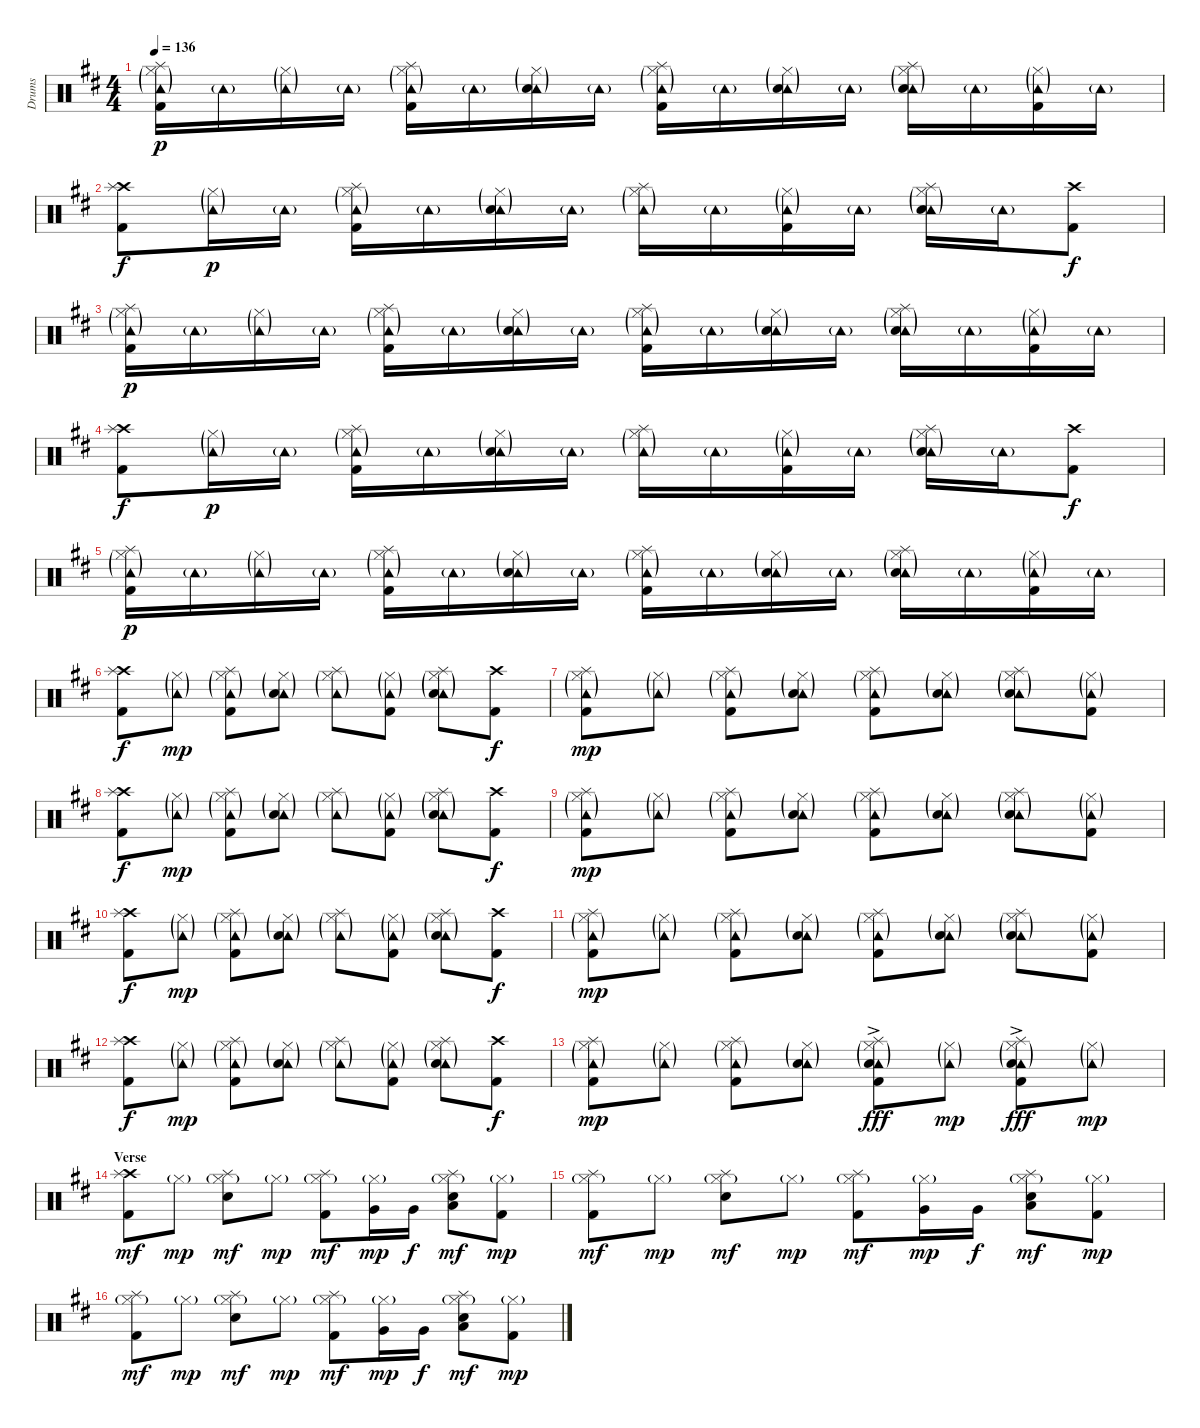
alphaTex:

\track ("Drums" "Drums") {instrument percussion}
\staff {score}
\articulation defaults
\ts (4 4)
\tempo 136
\clef neutral
\ks d
("Hi-Hat (closed)"{g} "Splash (hit)" "Tambourine (hit)"{g} "Kick (hit) 2").16{dy p} "Tambourine (hit)"{g}.16 ("Hi-Hat (closed)"{g} "Tambourine (hit)"{g}).16 "Tambourine (hit)"{g}.16 ("Hi-Hat (closed)"{g} "Splash (hit)" "Tambourine (hit)"{g} "Kick (hit) 2").16 "Tambourine (hit)"{g}.16 ("Hi-Hat (closed)"{g} "Tambourine (hit)"{g} "Snare (hit) 2").16 "Tambourine (hit)"{g}.16 ("Hi-Hat (closed)"{g} "Splash (hit)" "Tambourine (hit)"{g} "Kick (hit) 2").16 "Tambourine (hit)"{g}.16 ("Hi-Hat (closed)"{g} "Tambourine (hit)"{g} "Snare (hit) 2").16 "Tambourine (hit)"{g}.16 ("Hi-Hat (closed)"{g} "Splash (hit)" "Tambourine (hit)"{g} "Snare (hit) 2").16 "Tambourine (hit)"{g}.16 ("Hi-Hat (closed)"{g} "Tambourine (hit)"{g} "Kick (hit) 2").16 "Tambourine (hit)"{g}.16 |
("Crash high (hit)" "Splash (hit)" "Kick (hit) 2").8{dy f} ("Hi-Hat (closed)"{g} "Tambourine (hit)"{g}).16{dy p} "Tambourine (hit)"{g}.16 ("Hi-Hat (closed)"{g} "Splash (hit)" "Tambourine (hit)"{g} "Kick (hit) 2").16 "Tambourine (hit)"{g}.16 ("Hi-Hat (closed)"{g} "Tambourine (hit)"{g} "Snare (hit) 2").16 "Tambourine (hit)"{g}.16 ("Hi-Hat (closed)"{g} "Splash (hit)" "Tambourine (hit)"{g}).16 "Tambourine (hit)"{g}.16 ("Hi-Hat (closed)"{g} "Tambourine (hit)"{g} "Kick (hit) 2").16 "Tambourine (hit)"{g}.16 ("Hi-Hat (closed)"{g} "Splash (hit)" "Tambourine (hit)"{g} "Snare (hit) 2").16 "Tambourine (hit)"{g}.16 ("Crash high (hit)" "Kick (hit) 2").8{dy f} |
("Hi-Hat (closed)"{g} "Splash (hit)" "Tambourine (hit)"{g} "Kick (hit) 2").16{dy p} "Tambourine (hit)"{g}.16 ("Hi-Hat (closed)"{g} "Tambourine (hit)"{g}).16 "Tambourine (hit)"{g}.16 ("Hi-Hat (closed)"{g} "Splash (hit)" "Tambourine (hit)"{g} "Kick (hit) 2").16 "Tambourine (hit)"{g}.16 ("Hi-Hat (closed)"{g} "Tambourine (hit)"{g} "Snare (hit) 2").16 "Tambourine (hit)"{g}.16 ("Hi-Hat (closed)"{g} "Splash (hit)" "Tambourine (hit)"{g} "Kick (hit) 2").16 "Tambourine (hit)"{g}.16 ("Hi-Hat (closed)"{g} "Tambourine (hit)"{g} "Snare (hit) 2").16 "Tambourine (hit)"{g}.16 ("Hi-Hat (closed)"{g} "Splash (hit)" "Tambourine (hit)"{g} "Snare (hit) 2").16 "Tambourine (hit)"{g}.16 ("Hi-Hat (closed)"{g} "Tambourine (hit)"{g} "Kick (hit) 2").16 "Tambourine (hit)"{g}.16 |
("Crash high (hit)" "Splash (hit)" "Kick (hit) 2").8{dy f} ("Hi-Hat (closed)"{g} "Tambourine (hit)"{g}).16{dy p} "Tambourine (hit)"{g}.16 ("Hi-Hat (closed)"{g} "Splash (hit)" "Tambourine (hit)"{g} "Kick (hit) 2").16 "Tambourine (hit)"{g}.16 ("Hi-Hat (closed)"{g} "Tambourine (hit)"{g} "Snare (hit) 2").16 "Tambourine (hit)"{g}.16 ("Hi-Hat (closed)"{g} "Splash (hit)" "Tambourine (hit)"{g}).16 "Tambourine (hit)"{g}.16 ("Hi-Hat (closed)"{g} "Tambourine (hit)"{g} "Kick (hit) 2").16 "Tambourine (hit)"{g}.16 ("Hi-Hat (closed)"{g} "Splash (hit)" "Tambourine (hit)"{g} "Snare (hit) 2").16 "Tambourine (hit)"{g}.16 ("Crash high (hit)" "Kick (hit) 2").8{dy f} |
("Hi-Hat (closed)"{g} "Splash (hit)" "Tambourine (hit)"{g} "Kick (hit) 2").16{dy p} "Tambourine (hit)"{g}.16 ("Hi-Hat (closed)"{g} "Tambourine (hit)"{g}).16 "Tambourine (hit)"{g}.16 ("Hi-Hat (closed)"{g} "Splash (hit)" "Tambourine (hit)"{g} "Kick (hit) 2").16 "Tambourine (hit)"{g}.16 ("Hi-Hat (closed)"{g} "Tambourine (hit)"{g} "Snare (hit) 2").16 "Tambourine (hit)"{g}.16 ("Hi-Hat (closed)"{g} "Splash (hit)" "Tambourine (hit)"{g} "Kick (hit) 2").16 "Tambourine (hit)"{g}.16 ("Hi-Hat (closed)"{g} "Tambourine (hit)"{g} "Snare (hit) 2").16 "Tambourine (hit)"{g}.16 ("Hi-Hat (closed)"{g} "Splash (hit)" "Tambourine (hit)"{g} "Snare (hit) 2").16 "Tambourine (hit)"{g}.16 ("Hi-Hat (closed)"{g} "Tambourine (hit)"{g} "Kick (hit) 2").16 "Tambourine (hit)"{g}.16 |
("Crash high (hit)" "Splash (hit)" "Kick (hit) 2").8{dy f} ("Hi-Hat (closed)"{g} "Tambourine (hit)"{g}).8{dy mp} ("Hi-Hat (closed)"{g} "Splash (hit)" "Tambourine (hit)"{g} "Kick (hit) 2").8 ("Hi-Hat (closed)"{g} "Tambourine (hit)"{g} "Snare (hit) 2").8 ("Hi-Hat (closed)"{g} "Splash (hit)" "Tambourine (hit)"{g}).8 ("Hi-Hat (closed)"{g} "Tambourine (hit)"{g} "Kick (hit) 2").8 ("Hi-Hat (closed)"{g} "Splash (hit)" "Tambourine (hit)"{g} "Snare (hit) 2").8 ("Crash high (hit)" "Kick (hit) 2").8{dy f} |
("Hi-Hat (closed)"{g} "Splash (hit)" "Tambourine (hit)"{g} "Kick (hit) 2").8{dy mp} ("Hi-Hat (closed)"{g} "Tambourine (hit)"{g}).8 ("Hi-Hat (closed)"{g} "Splash (hit)" "Tambourine (hit)"{g} "Kick (hit) 2").8 ("Hi-Hat (closed)"{g} "Tambourine (hit)"{g} "Snare (hit) 2").8 ("Hi-Hat (closed)"{g} "Splash (hit)" "Tambourine (hit)"{g} "Kick (hit) 2").8 ("Hi-Hat (closed)"{g} "Tambourine (hit)"{g} "Snare (hit) 2").8 ("Hi-Hat (closed)"{g} "Splash (hit)" "Tambourine (hit)"{g} "Snare (hit) 2").8 ("Hi-Hat (closed)"{g} "Tambourine (hit)"{g} "Kick (hit) 2").8 |
("Crash high (hit)" "Splash (hit)" "Kick (hit) 2").8{dy f} ("Hi-Hat (closed)"{g} "Tambourine (hit)"{g}).8{dy mp} ("Hi-Hat (closed)"{g} "Splash (hit)" "Tambourine (hit)"{g} "Kick (hit) 2").8 ("Hi-Hat (closed)"{g} "Tambourine (hit)"{g} "Snare (hit) 2").8 ("Hi-Hat (closed)"{g} "Splash (hit)" "Tambourine (hit)"{g}).8 ("Hi-Hat (closed)"{g} "Tambourine (hit)"{g} "Kick (hit) 2").8 ("Hi-Hat (closed)"{g} "Splash (hit)" "Tambourine (hit)"{g} "Snare (hit) 2").8 ("Crash high (hit)" "Kick (hit) 2").8{dy f} |
("Hi-Hat (closed)"{g} "Splash (hit)" "Tambourine (hit)"{g} "Kick (hit) 2").8{dy mp} ("Hi-Hat (closed)"{g} "Tambourine (hit)"{g}).8 ("Hi-Hat (closed)"{g} "Splash (hit)" "Tambourine (hit)"{g} "Kick (hit) 2").8 ("Hi-Hat (closed)"{g} "Tambourine (hit)"{g} "Snare (hit) 2").8 ("Hi-Hat (closed)"{g} "Splash (hit)" "Tambourine (hit)"{g} "Kick (hit) 2").8 ("Hi-Hat (closed)"{g} "Tambourine (hit)"{g} "Snare (hit) 2").8 ("Hi-Hat (closed)"{g} "Splash (hit)" "Tambourine (hit)"{g} "Snare (hit) 2").8 ("Hi-Hat (closed)"{g} "Tambourine (hit)"{g} "Kick (hit) 2").8 |
("Crash high (hit)" "Splash (hit)" "Kick (hit) 2").8{dy f} ("Hi-Hat (closed)"{g} "Tambourine (hit)"{g}).8{dy mp} ("Hi-Hat (closed)"{g} "Splash (hit)" "Tambourine (hit)"{g} "Kick (hit) 2").8 ("Hi-Hat (closed)"{g} "Tambourine (hit)"{g} "Snare (hit) 2").8 ("Hi-Hat (closed)"{g} "Splash (hit)" "Tambourine (hit)"{g}).8 ("Hi-Hat (closed)"{g} "Tambourine (hit)"{g} "Kick (hit) 2").8 ("Hi-Hat (closed)"{g} "Splash (hit)" "Tambourine (hit)"{g} "Snare (hit) 2").8 ("Crash high (hit)" "Kick (hit) 2").8{dy f} |
("Hi-Hat (closed)"{g} "Splash (hit)" "Tambourine (hit)"{g} "Kick (hit) 2").8{dy mp} ("Hi-Hat (closed)"{g} "Tambourine (hit)"{g}).8 ("Hi-Hat (closed)"{g} "Splash (hit)" "Tambourine (hit)"{g} "Kick (hit) 2").8 ("Hi-Hat (closed)"{g} "Tambourine (hit)"{g} "Snare (hit) 2").8 ("Hi-Hat (closed)"{g} "Splash (hit)" "Tambourine (hit)"{g} "Kick (hit) 2").8 ("Hi-Hat (closed)"{g} "Tambourine (hit)"{g} "Snare (hit) 2").8 ("Hi-Hat (closed)"{g} "Splash (hit)" "Tambourine (hit)"{g} "Snare (hit) 2").8 ("Hi-Hat (closed)"{g} "Tambourine (hit)"{g} "Kick (hit) 2").8 |
("Crash high (hit)" "Splash (hit)" "Kick (hit) 2").8{dy f} ("Hi-Hat (closed)"{g} "Tambourine (hit)"{g}).8{dy mp} ("Hi-Hat (closed)"{g} "Splash (hit)" "Tambourine (hit)"{g} "Kick (hit) 2").8 ("Hi-Hat (closed)"{g} "Tambourine (hit)"{g} "Snare (hit) 2").8 ("Hi-Hat (closed)"{g} "Splash (hit)" "Tambourine (hit)"{g}).8 ("Hi-Hat (closed)"{g} "Tambourine (hit)"{g} "Kick (hit) 2").8 ("Hi-Hat (closed)"{g} "Splash (hit)" "Tambourine (hit)"{g} "Snare (hit) 2").8 ("Crash high (hit)" "Kick (hit) 2").8{dy f} |
("Hi-Hat (closed)"{g} "Splash (hit)" "Tambourine (hit)"{g} "Kick (hit) 2").8{dy mp} ("Hi-Hat (closed)"{g} "Tambourine (hit)"{g}).8 ("Hi-Hat (closed)"{g} "Splash (hit)" "Tambourine (hit)"{g} "Kick (hit) 2").8 ("Hi-Hat (closed)"{g} "Tambourine (hit)"{g} "Snare (hit) 2").8 ("Hi-Hat (closed)"{g} "Splash (hit)" "Tambourine (hit)"{g} "Snare (hit) 2"{ac} "Kick (hit) 2").8{dy fff} ("Hi-Hat (closed)"{g} "Tambourine (hit)"{g}).8{dy mp} ("Hi-Hat (closed)"{g} "Splash (hit)" "Tambourine (hit)"{g} "Snare (hit) 2"{ac} "Kick (hit) 2").8{dy fff} ("Hi-Hat (closed)"{g} "Tambourine (hit)"{g}).8{dy mp} |
\section ("" "Verse")
("Crash high (hit)" "Splash (hit)" "Kick (hit) 2").8{dy mf} "Hi-Hat (closed)"{g}.8{dy mp} ("Hi-Hat (closed)"{g} "Splash (hit)" "Snare (hit) 2").8{dy mf} "Hi-Hat (closed)"{g}.8{dy mp} ("Hi-Hat (closed)"{g} "Splash (hit)" "Kick (hit) 2").8{dy mf} ("Hi-Hat (closed)"{g} "Very Low Tom (hit)").16{dy mp} "Very Low Tom (hit)".16{dy f} ("Hi-Hat (closed)"{g} "Splash (hit)" "Low Floor Tom (hit)" "Snare (hit) 2").8{dy mf} ("Hi-Hat (closed)"{g} "Kick (hit) 2").8{dy mp} |
("Hi-Hat (closed)"{g} "Splash (hit)" "Kick (hit) 2").8{dy mf} "Hi-Hat (closed)"{g}.8{dy mp} ("Hi-Hat (closed)"{g} "Splash (hit)" "Snare (hit) 2").8{dy mf} "Hi-Hat (closed)"{g}.8{dy mp} ("Hi-Hat (closed)"{g} "Splash (hit)" "Kick (hit) 2").8{dy mf} ("Hi-Hat (closed)"{g} "Very Low Tom (hit)").16{dy mp} "Very Low Tom (hit)".16{dy f} ("Hi-Hat (closed)"{g} "Splash (hit)" "Low Floor Tom (hit)" "Snare (hit) 2").8{dy mf} ("Hi-Hat (closed)"{g} "Kick (hit) 2").8{dy mp} |
("Hi-Hat (closed)"{g} "Splash (hit)" "Kick (hit) 2").8{dy mf} "Hi-Hat (closed)"{g}.8{dy mp} ("Hi-Hat (closed)"{g} "Splash (hit)" "Snare (hit) 2").8{dy mf} "Hi-Hat (closed)"{g}.8{dy mp} ("Hi-Hat (closed)"{g} "Splash (hit)" "Kick (hit) 2").8{dy mf} ("Hi-Hat (closed)"{g} "Very Low Tom (hit)").16{dy mp} "Very Low Tom (hit)".16{dy f} ("Hi-Hat (closed)"{g} "Splash (hit)" "Low Floor Tom (hit)" "Snare (hit) 2").8{dy mf} ("Hi-Hat (closed)"{g} "Kick (hit) 2").8{dy mp}
